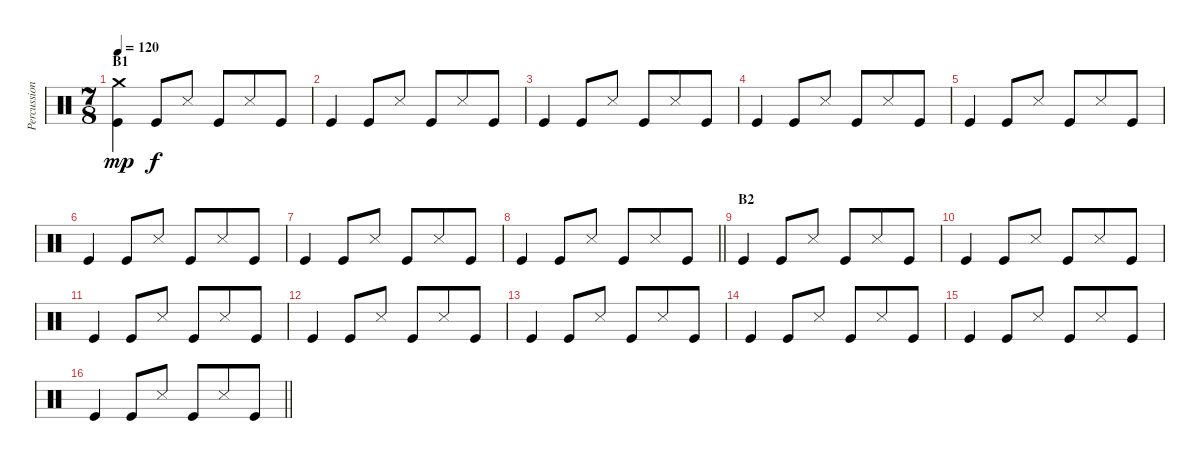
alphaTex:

\track ("Percussion" "Percussion") {instrument percussion}
\staff {score}
\articulation defaults
\ts (7 8)
\section ("" "B1")
\tempo 120
\clef neutral
\ks c
("Crash medium (hit)" "Kick (hit)").4{dy mp} "Kick (hit)".8{dy f} "Snare (side stick) 3".8 "Kick (hit)".8 "Snare (side stick) 3".8 "Kick (hit)".8 |
"Kick (hit)".4 "Kick (hit)".8 "Snare (side stick) 3".8 "Kick (hit)".8 "Snare (side stick) 3".8 "Kick (hit)".8 |
"Kick (hit)".4 "Kick (hit)".8 "Snare (side stick) 3".8 "Kick (hit)".8 "Snare (side stick) 3".8 "Kick (hit)".8 |
"Kick (hit)".4 "Kick (hit)".8 "Snare (side stick) 3".8 "Kick (hit)".8 "Snare (side stick) 3".8 "Kick (hit)".8 |
"Kick (hit)".4 "Kick (hit)".8 "Snare (side stick) 3".8 "Kick (hit)".8 "Snare (side stick) 3".8 "Kick (hit)".8 |
"Kick (hit)".4 "Kick (hit)".8 "Snare (side stick) 3".8 "Kick (hit)".8 "Snare (side stick) 3".8 "Kick (hit)".8 |
"Kick (hit)".4 "Kick (hit)".8 "Snare (side stick) 3".8 "Kick (hit)".8 "Snare (side stick) 3".8 "Kick (hit)".8 |
\barLineRight lightlight "Kick (hit)".4 "Kick (hit)".8 "Snare (side stick) 3".8 "Kick (hit)".8 "Snare (side stick) 3".8 "Kick (hit)".8
|
\section ("" "B2")
"Kick (hit)".4 "Kick (hit)".8 "Snare (side stick) 3".8 "Kick (hit)".8 "Snare (side stick) 3".8 "Kick (hit)".8 |
"Kick (hit)".4 "Kick (hit)".8 "Snare (side stick) 3".8 "Kick (hit)".8 "Snare (side stick) 3".8 "Kick (hit)".8 |
"Kick (hit)".4 "Kick (hit)".8 "Snare (side stick) 3".8 "Kick (hit)".8 "Snare (side stick) 3".8 "Kick (hit)".8 |
"Kick (hit)".4 "Kick (hit)".8 "Snare (side stick) 3".8 "Kick (hit)".8 "Snare (side stick) 3".8 "Kick (hit)".8 |
"Kick (hit)".4 "Kick (hit)".8 "Snare (side stick) 3".8 "Kick (hit)".8 "Snare (side stick) 3".8 "Kick (hit)".8 |
"Kick (hit)".4 "Kick (hit)".8 "Snare (side stick) 3".8 "Kick (hit)".8 "Snare (side stick) 3".8 "Kick (hit)".8 |
"Kick (hit)".4 "Kick (hit)".8 "Snare (side stick) 3".8 "Kick (hit)".8 "Snare (side stick) 3".8 "Kick (hit)".8 |
\barLineRight lightlight "Kick (hit)".4 "Kick (hit)".8 "Snare (side stick) 3".8 "Kick (hit)".8 "Snare (side stick) 3".8 "Kick (hit)".8
